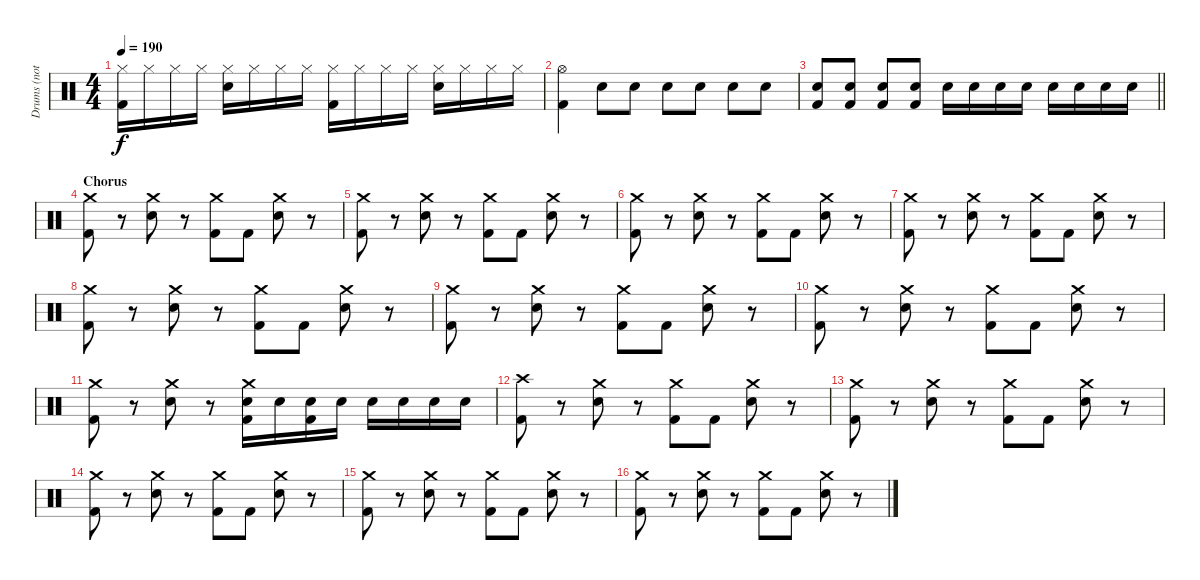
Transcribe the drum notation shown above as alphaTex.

\track ("Drums (not correct)" "Drums (not") {instrument percussion}
\staff {score}
\articulation defaults
\ts (4 4)
\tempo 190
\clef neutral
\ks c
("Hi-Hat (closed)" "Kick (hit) 2").16{dy f} "Hi-Hat (closed)".16 "Hi-Hat (closed)".16 "Hi-Hat (closed)".16 ("Hi-Hat (closed)" "Electric Snare (hit)").16 "Hi-Hat (closed)".16 "Hi-Hat (closed)".16 "Hi-Hat (closed)".16 ("Hi-Hat (closed)" "Kick (hit) 2").16 "Hi-Hat (closed)".16 "Hi-Hat (closed)".16 "Hi-Hat (closed)".16 ("Hi-Hat (closed)" "Electric Snare (hit)").16 "Hi-Hat (closed)".16 "Hi-Hat (closed)".16 "Hi-Hat (closed)".16 |
("Hi-Hat (open)" "Kick (hit) 2").4 "Electric Snare (hit)".8 "Electric Snare (hit)".8 "Electric Snare (hit)".8 "Electric Snare (hit)".8 "Electric Snare (hit)".8 "Electric Snare (hit)".8 |
\barLineRight lightlight
("Electric Snare (hit)" "Kick (hit) 2").8 ("Electric Snare (hit)" "Kick (hit) 2").8 ("Electric Snare (hit)" "Kick (hit) 2").8 ("Electric Snare (hit)" "Kick (hit) 2").8 "Electric Snare (hit)".16 "Electric Snare (hit)".16 "Electric Snare (hit)".16 "Electric Snare (hit)".16 "Electric Snare (hit)".16 "Electric Snare (hit)".16 "Electric Snare (hit)".16 "Electric Snare (hit)".16 |
\section ("" "Chorus")
("Crash medium (hit)" "Kick (hit) 2").8 r.8 ("Crash medium (hit)" "Electric Snare (hit)").8 r.8 ("Crash medium (hit)" "Kick (hit) 2").8 "Kick (hit) 2".8 ("Crash medium (hit)" "Electric Snare (hit)").8 r.8 |
("Crash medium (hit)" "Kick (hit) 2").8 r.8 ("Crash medium (hit)" "Electric Snare (hit)").8 r.8 ("Crash medium (hit)" "Kick (hit) 2").8 "Kick (hit) 2".8 ("Crash medium (hit)" "Electric Snare (hit)").8 r.8 |
("Crash medium (hit)" "Kick (hit) 2").8 r.8 ("Crash medium (hit)" "Electric Snare (hit)").8 r.8 ("Crash medium (hit)" "Kick (hit) 2").8 "Kick (hit) 2".8 ("Crash medium (hit)" "Electric Snare (hit)").8 r.8 |
("Crash medium (hit)" "Kick (hit) 2").8 r.8 ("Crash medium (hit)" "Electric Snare (hit)").8 r.8 ("Crash medium (hit)" "Kick (hit) 2").8 "Kick (hit) 2".8 ("Crash medium (hit)" "Electric Snare (hit)").8 r.8 |
("Crash medium (hit)" "Kick (hit) 2").8 r.8 ("Crash medium (hit)" "Electric Snare (hit)").8 r.8 ("Crash medium (hit)" "Kick (hit) 2").8 "Kick (hit) 2".8 ("Crash medium (hit)" "Electric Snare (hit)").8 r.8 |
("Crash medium (hit)" "Kick (hit) 2").8 r.8 ("Crash medium (hit)" "Electric Snare (hit)").8 r.8 ("Crash medium (hit)" "Kick (hit) 2").8 "Kick (hit) 2".8 ("Crash medium (hit)" "Electric Snare (hit)").8 r.8 |
("Crash medium (hit)" "Kick (hit) 2").8 r.8 ("Crash medium (hit)" "Electric Snare (hit)").8 r.8 ("Crash medium (hit)" "Kick (hit) 2").8 "Kick (hit) 2".8 ("Crash medium (hit)" "Electric Snare (hit)").8 r.8 |
("Crash medium (hit)" "Kick (hit) 2").8 r.8 ("Crash medium (hit)" "Electric Snare (hit)").8 r.8 ("Crash medium (hit)" "Electric Snare (hit)" "Kick (hit) 2").16 "Electric Snare (hit)".16 ("Electric Snare (hit)" "Kick (hit) 2").16 "Electric Snare (hit)".16 "Electric Snare (hit)".16 "Electric Snare (hit)".16 "Electric Snare (hit)".16 "Electric Snare (hit)".16 |
("Crash high (hit)" "Kick (hit) 2").8 r.8 ("Crash medium (hit)" "Electric Snare (hit)").8 r.8 ("Crash medium (hit)" "Kick (hit) 2").8 "Kick (hit) 2".8 ("Crash medium (hit)" "Electric Snare (hit)").8 r.8 |
("Crash medium (hit)" "Kick (hit) 2").8 r.8 ("Crash medium (hit)" "Electric Snare (hit)").8 r.8 ("Crash medium (hit)" "Kick (hit) 2").8 "Kick (hit) 2".8 ("Crash medium (hit)" "Electric Snare (hit)").8 r.8 |
("Crash medium (hit)" "Kick (hit) 2").8 r.8 ("Crash medium (hit)" "Electric Snare (hit)").8 r.8 ("Crash medium (hit)" "Kick (hit) 2").8 "Kick (hit) 2".8 ("Crash medium (hit)" "Electric Snare (hit)").8 r.8 |
("Crash medium (hit)" "Kick (hit) 2").8 r.8 ("Crash medium (hit)" "Electric Snare (hit)").8 r.8 ("Crash medium (hit)" "Kick (hit) 2").8 "Kick (hit) 2".8 ("Crash medium (hit)" "Electric Snare (hit)").8 r.8 |
("Crash medium (hit)" "Kick (hit) 2").8 r.8 ("Crash medium (hit)" "Electric Snare (hit)").8 r.8 ("Crash medium (hit)" "Kick (hit) 2").8 "Kick (hit) 2".8 ("Crash medium (hit)" "Electric Snare (hit)").8 r.8
